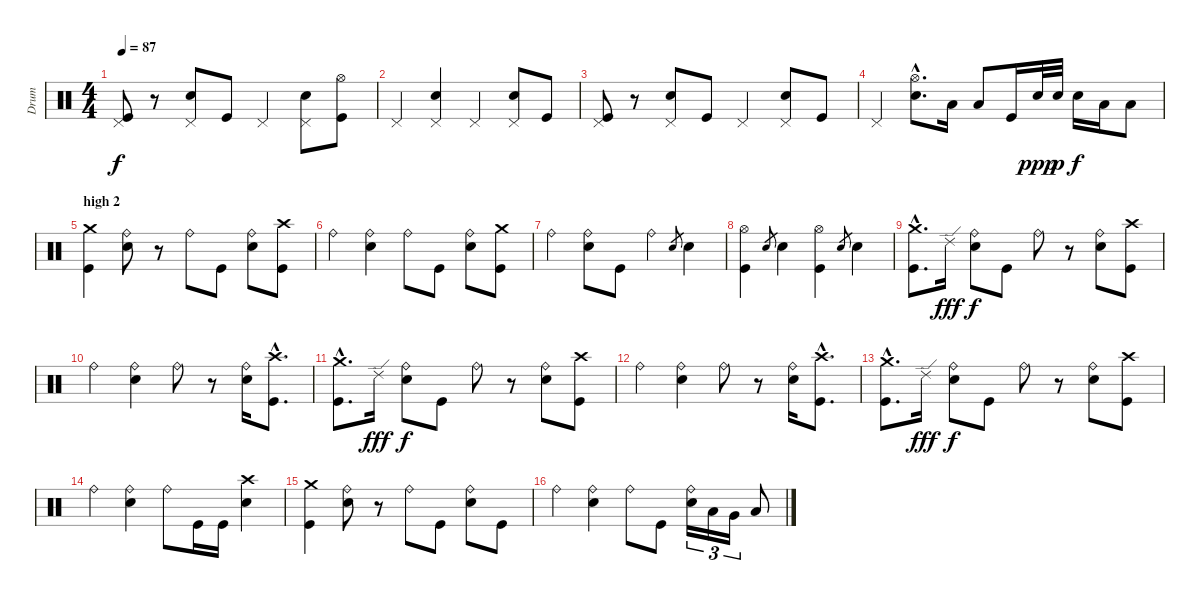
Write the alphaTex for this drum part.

\track ("Drum" "Drum") {instrument percussion}
\staff {score}
\articulation defaults
\ts (4 4)
\tempo 87
\clef neutral
\ks c
("Pedal Hi-Hat (hit)" "Kick (hit)").8{dy f} r.8 ("Pedal Hi-Hat (hit)" "Snare (hit) 2").8 "Kick (hit)".8 "Pedal Hi-Hat (hit)".4 ("Pedal Hi-Hat (hit)" "Snare (hit) 2").8 ("Hi-Hat (open)" "Kick (hit)").8 |
"Pedal Hi-Hat (hit)".4 ("Pedal Hi-Hat (hit)" "Snare (hit) 2").4 "Pedal Hi-Hat (hit)".4 ("Pedal Hi-Hat (hit)" "Snare (hit) 2").8 "Kick (hit)".8 |
("Pedal Hi-Hat (hit)" "Kick (hit)").8 r.8 ("Pedal Hi-Hat (hit)" "Snare (hit) 2").8 "Kick (hit)".8 "Pedal Hi-Hat (hit)".4 ("Pedal Hi-Hat (hit)" "Snare (hit) 2").8 "Kick (hit)".8 |
"Pedal Hi-Hat (hit)".4 ("Hi-Hat (open)"{hac} "Snare (hit) 2"{hac}).8{d} "Low Tom (hit)".16 "Low Tom (hit)".8 "Kick (hit)".16 "Snare (hit) 2".32{dy ppp} "Snare (hit) 2".32{dy p} "Snare (hit) 2".16{dy f} "Low Tom (hit)".16 "Low Tom (hit)".8 |
\section ("" "high 2")
("Crash medium (hit)" "Kick (hit)").4 ("Ride (bell)" "Snare (hit) 2").8 r.8 "Ride (bell)".8 "Kick (hit)".8 ("Ride (bell)" "Snare (hit) 2").8 ("Crash high (hit)" "Kick (hit)").8 |
"Ride (bell)".4 ("Ride (bell)" "Snare (hit) 2").4 "Ride (bell)".8 "Kick (hit)".8 ("Ride (bell)" "Snare (hit) 2").8 ("Crash medium (hit)" "Kick (hit)").8 |
"Ride (bell)".4 ("Ride (bell)" "Snare (hit) 2").8 "Kick (hit)".8 "Ride (bell)".4 "Snare (hit) 2".8{gr} "Snare (hit) 2".4 |
("Hi-Hat (open)" "Kick (hit)").4 "Snare (hit) 2".8{gr} "Snare (hit) 2".4 ("Hi-Hat (open)" "Kick (hit)").4 "Snare (hit) 2".8{gr} "Snare (hit) 2".4 |
("Crash medium (hit)"{hac} "Kick (hit)"{hac}).8{d} "Ride (edge) 2".16{dy fff} ("Ride (bell)" "Snare (hit) 2").8{dy f} "Kick (hit)".8 "Ride (bell)".8 r.8 ("Ride (bell)" "Snare (hit) 2").8 ("Crash high (hit)" "Kick (hit)").8 |
"Ride (bell)".4 ("Ride (bell)" "Snare (hit) 2").4 "Ride (bell)".8 r.8 ("Ride (bell)" "Snare (hit) 2").16 ("Crash high (hit)"{hac} "Kick (hit)"{hac}).8{d} |
("Crash medium (hit)"{hac} "Kick (hit)"{hac}).8{d} "Ride (edge) 2".16{dy fff} ("Ride (bell)" "Snare (hit) 2").8{dy f} "Kick (hit)".8 "Ride (bell)".8 r.8 ("Ride (bell)" "Snare (hit) 2").8 ("Crash high (hit)" "Kick (hit)").8 |
"Ride (bell)".4 ("Ride (bell)" "Snare (hit) 2").4 "Ride (bell)".8 r.8 ("Ride (bell)" "Snare (hit) 2").16 ("Crash high (hit)"{hac} "Kick (hit)"{hac}).8{d} |
("Crash medium (hit)"{hac} "Kick (hit)"{hac}).8{d} "Ride (edge) 2".16{dy fff} ("Ride (bell)" "Snare (hit) 2").8{dy f} "Kick (hit)".8 "Ride (bell)".8 r.8 ("Ride (bell)" "Snare (hit) 2").8 ("Crash high (hit)" "Kick (hit)").8 |
"Ride (bell)".4 ("Ride (bell)" "Snare (hit) 2").4 "Ride (bell)".8 "Kick (hit)".16 "Kick (hit)".16 ("Crash high (hit)" "Snare (hit) 2").4 |
("Crash medium (hit)" "Kick (hit)").4 ("Ride (bell)" "Snare (hit) 2").8 r.8 "Ride (bell)".8 "Kick (hit)".8 ("Ride (bell)" "Snare (hit) 2").8 "Kick (hit)".8 |
"Ride (bell)".4 ("Ride (bell)" "Snare (hit) 2").4 "Ride (bell)".8 "Kick (hit)".8 ("Ride (bell)" "Snare (hit) 2").16{tu (3 2)} "Low Tom (hit)".16{tu (3 2)} "Very Low Tom (hit)".16{tu (3 2)} "Low Floor Tom (hit)".8
